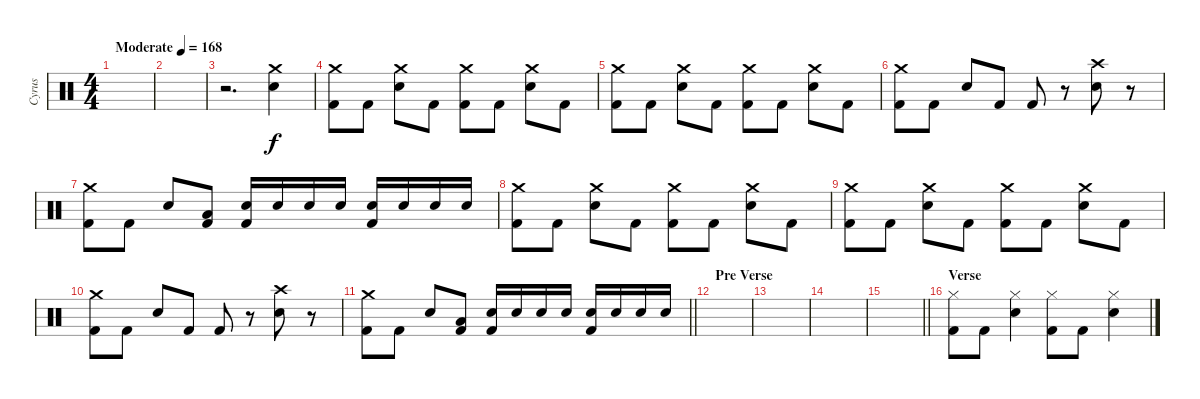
\track ("Cyrus" "Cyrus") {instrument percussion}
\staff {score}
\articulation defaults
\ts (4 4)
\tempo (168 "Moderate")
\clef neutral
\ks c
|
|
r.2{d} ("Crash medium (hit)" "Snare (hit) 2").4 |
("Crash medium (hit)" "Kick (hit) 2").8 "Kick (hit) 2".8 ("Crash medium (hit)" "Snare (hit) 2").8 "Kick (hit) 2".8 ("Crash medium (hit)" "Kick (hit) 2").8 "Kick (hit) 2".8 ("Crash medium (hit)" "Snare (hit) 2").8 "Kick (hit) 2".8 |
("Crash medium (hit)" "Kick (hit) 2").8 "Kick (hit) 2".8 ("Crash medium (hit)" "Snare (hit) 2").8 "Kick (hit) 2".8 ("Crash medium (hit)" "Kick (hit) 2").8 "Kick (hit) 2".8 ("Crash medium (hit)" "Snare (hit) 2").8 "Kick (hit) 2".8 |
("Crash medium (hit)" "Kick (hit) 2").8 "Kick (hit) 2".8 "Snare (hit) 2".8 "Kick (hit) 2".8 "Kick (hit) 2".8 r.8 ("Crash high (hit)" "Snare (hit) 2").8 r.8 |
("Crash medium (hit)" "Kick (hit) 2").8 "Kick (hit) 2".8 "Snare (hit) 2".8 ("Low Tom (hit)" "Kick (hit) 2").8 ("Snare (hit) 2" "Kick (hit) 2").16 "Snare (hit) 2".16 "Snare (hit) 2".16 "Snare (hit) 2".16 ("Snare (hit) 2" "Kick (hit) 2").16 "Snare (hit) 2".16 "Snare (hit) 2".16 "Snare (hit) 2".16 |
("Crash medium (hit)" "Kick (hit) 2").8 "Kick (hit) 2".8 ("Crash medium (hit)" "Snare (hit) 2").8 "Kick (hit) 2".8 ("Crash medium (hit)" "Kick (hit) 2").8 "Kick (hit) 2".8 ("Crash medium (hit)" "Snare (hit) 2").8 "Kick (hit) 2".8 |
("Crash medium (hit)" "Kick (hit) 2").8 "Kick (hit) 2".8 ("Crash medium (hit)" "Snare (hit) 2").8 "Kick (hit) 2".8 ("Crash medium (hit)" "Kick (hit) 2").8 "Kick (hit) 2".8 ("Crash medium (hit)" "Snare (hit) 2").8 "Kick (hit) 2".8 |
("Crash medium (hit)" "Kick (hit) 2").8 "Kick (hit) 2".8 "Snare (hit) 2".8 "Kick (hit) 2".8 "Kick (hit) 2".8 r.8 ("Crash high (hit)" "Snare (hit) 2").8 r.8 |
\barLineRight lightlight
("Crash medium (hit)" "Kick (hit) 2").8 "Kick (hit) 2".8 "Snare (hit) 2".8 ("Low Tom (hit)" "Kick (hit) 2").8 ("Snare (hit) 2" "Kick (hit) 2").16 "Snare (hit) 2".16 "Snare (hit) 2".16 "Snare (hit) 2".16 ("Snare (hit) 2" "Kick (hit) 2").16 "Snare (hit) 2".16 "Snare (hit) 2".16 "Snare (hit) 2".16 |
\section ("" "Pre Verse")
|
|
|
\barLineRight lightlight
|
\section ("" "Verse")
("Hi-Hat (closed)" "Kick (hit) 2").8 "Kick (hit) 2".8 ("Hi-Hat (closed)" "Snare (hit) 2").4 ("Hi-Hat (closed)" "Kick (hit) 2").8 "Kick (hit) 2".8 ("Hi-Hat (closed)" "Snare (hit) 2").4
